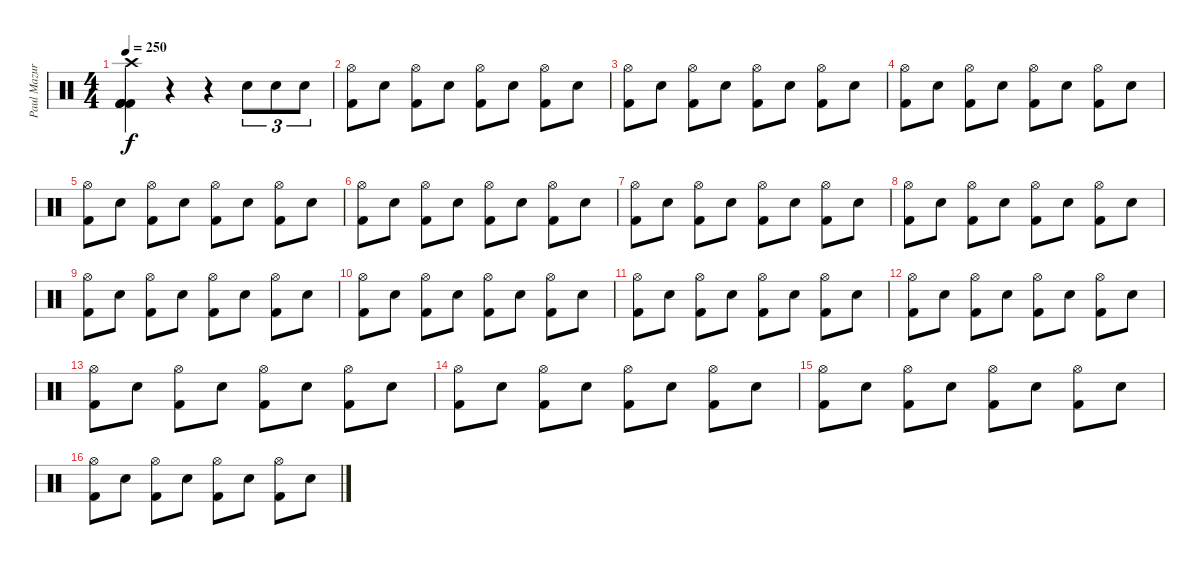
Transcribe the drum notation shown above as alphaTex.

\track ("Paul Mazurkiewicz" "Paul Mazur") {instrument percussion}
\staff {score}
\articulation defaults
\ts (4 4)
\tempo 250
\clef neutral
\ks c
("Kick (hit) 2" "Kick (hit) 2" "Kick (hit) 2" "Kick (hit) 2" "Crash high (hit)").4{dy f} r.4 r.4 "Snare (hit) 2".8{tu (3 2)} "Snare (hit) 2".8{tu (3 2)} "Snare (hit) 2".8{tu (3 2)} |
("Hi-Hat (open)" "Kick (hit) 2").8 "Snare (hit) 2".8 ("Hi-Hat (open)" "Kick (hit) 2").8 "Snare (hit) 2".8 ("Hi-Hat (open)" "Kick (hit) 2").8 "Snare (hit) 2".8 ("Hi-Hat (open)" "Kick (hit) 2").8 "Snare (hit) 2".8 |
("Hi-Hat (open)" "Kick (hit) 2").8 "Snare (hit) 2".8 ("Hi-Hat (open)" "Kick (hit) 2").8 "Snare (hit) 2".8 ("Hi-Hat (open)" "Kick (hit) 2").8 "Snare (hit) 2".8 ("Hi-Hat (open)" "Kick (hit) 2").8 "Snare (hit) 2".8 |
("Hi-Hat (open)" "Kick (hit) 2").8 "Snare (hit) 2".8 ("Hi-Hat (open)" "Kick (hit) 2").8 "Snare (hit) 2".8 ("Hi-Hat (open)" "Kick (hit) 2").8 "Snare (hit) 2".8 ("Hi-Hat (open)" "Kick (hit) 2").8 "Snare (hit) 2".8 |
("Hi-Hat (open)" "Kick (hit) 2").8 "Snare (hit) 2".8 ("Hi-Hat (open)" "Kick (hit) 2").8 "Snare (hit) 2".8 ("Hi-Hat (open)" "Kick (hit) 2").8 "Snare (hit) 2".8 ("Hi-Hat (open)" "Kick (hit) 2").8 "Snare (hit) 2".8 |
("Hi-Hat (open)" "Kick (hit) 2").8 "Snare (hit) 2".8 ("Hi-Hat (open)" "Kick (hit) 2").8 "Snare (hit) 2".8 ("Hi-Hat (open)" "Kick (hit) 2").8 "Snare (hit) 2".8 ("Hi-Hat (open)" "Kick (hit) 2").8 "Snare (hit) 2".8 |
("Hi-Hat (open)" "Kick (hit) 2").8 "Snare (hit) 2".8 ("Hi-Hat (open)" "Kick (hit) 2").8 "Snare (hit) 2".8 ("Hi-Hat (open)" "Kick (hit) 2").8 "Snare (hit) 2".8 ("Hi-Hat (open)" "Kick (hit) 2").8 "Snare (hit) 2".8 |
("Hi-Hat (open)" "Kick (hit) 2").8 "Snare (hit) 2".8 ("Hi-Hat (open)" "Kick (hit) 2").8 "Snare (hit) 2".8 ("Hi-Hat (open)" "Kick (hit) 2").8 "Snare (hit) 2".8 ("Hi-Hat (open)" "Kick (hit) 2").8 "Snare (hit) 2".8 |
("Hi-Hat (open)" "Kick (hit) 2").8 "Snare (hit) 2".8 ("Hi-Hat (open)" "Kick (hit) 2").8 "Snare (hit) 2".8 ("Hi-Hat (open)" "Kick (hit) 2").8 "Snare (hit) 2".8 ("Hi-Hat (open)" "Kick (hit) 2").8 "Snare (hit) 2".8 |
("Hi-Hat (open)" "Kick (hit) 2").8 "Snare (hit) 2".8 ("Hi-Hat (open)" "Kick (hit) 2").8 "Snare (hit) 2".8 ("Hi-Hat (open)" "Kick (hit) 2").8 "Snare (hit) 2".8 ("Hi-Hat (open)" "Kick (hit) 2").8 "Snare (hit) 2".8 |
("Hi-Hat (open)" "Kick (hit) 2").8 "Snare (hit) 2".8 ("Hi-Hat (open)" "Kick (hit) 2").8 "Snare (hit) 2".8 ("Hi-Hat (open)" "Kick (hit) 2").8 "Snare (hit) 2".8 ("Hi-Hat (open)" "Kick (hit) 2").8 "Snare (hit) 2".8 |
("Hi-Hat (open)" "Kick (hit) 2").8 "Snare (hit) 2".8 ("Hi-Hat (open)" "Kick (hit) 2").8 "Snare (hit) 2".8 ("Hi-Hat (open)" "Kick (hit) 2").8 "Snare (hit) 2".8 ("Hi-Hat (open)" "Kick (hit) 2").8 "Snare (hit) 2".8 |
("Hi-Hat (open)" "Kick (hit) 2").8 "Snare (hit) 2".8 ("Hi-Hat (open)" "Kick (hit) 2").8 "Snare (hit) 2".8 ("Hi-Hat (open)" "Kick (hit) 2").8 "Snare (hit) 2".8 ("Hi-Hat (open)" "Kick (hit) 2").8 "Snare (hit) 2".8 |
("Hi-Hat (open)" "Kick (hit) 2").8 "Snare (hit) 2".8 ("Hi-Hat (open)" "Kick (hit) 2").8 "Snare (hit) 2".8 ("Hi-Hat (open)" "Kick (hit) 2").8 "Snare (hit) 2".8 ("Hi-Hat (open)" "Kick (hit) 2").8 "Snare (hit) 2".8 |
("Hi-Hat (open)" "Kick (hit) 2").8 "Snare (hit) 2".8 ("Hi-Hat (open)" "Kick (hit) 2").8 "Snare (hit) 2".8 ("Hi-Hat (open)" "Kick (hit) 2").8 "Snare (hit) 2".8 ("Hi-Hat (open)" "Kick (hit) 2").8 "Snare (hit) 2".8 |
("Hi-Hat (open)" "Kick (hit) 2").8 "Snare (hit) 2".8 ("Hi-Hat (open)" "Kick (hit) 2").8 "Snare (hit) 2".8 ("Hi-Hat (open)" "Kick (hit) 2").8 "Snare (hit) 2".8 ("Hi-Hat (open)" "Kick (hit) 2").8 "Snare (hit) 2".8
